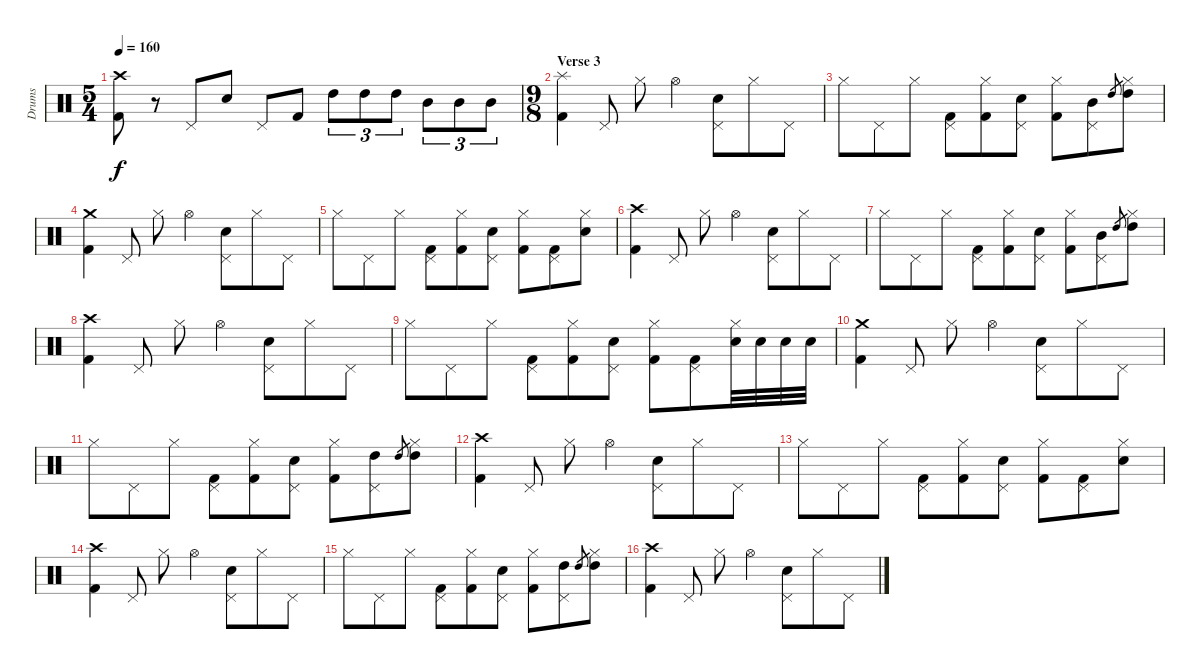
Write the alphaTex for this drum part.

\track ("Drums" "Drums") {instrument percussion}
\staff {score}
\articulation defaults
\ts (5 4)
\tempo 160
\clef neutral
\ks c
("Crash high (hit)" "Kick (hit) 2").8{dy f} r.8 "Pedal Hi-Hat (hit)".8 "Electric Snare (hit)".8 "Pedal Hi-Hat (hit)".8 "Kick (hit) 2".8 "High Tom (hit)".8{tu (3 2)} "High Tom (hit)".8{tu (3 2)} "High Tom (hit)".8{tu (3 2)} "Mid Tom (hit)".8{tu (3 2)} "Mid Tom (hit)".8{tu (3 2)} "Mid Tom (hit)".8{tu (3 2)} |
\ts (9 8)
\section ("" "Verse 3")
("Splash (hit)" "Kick (hit) 2").4 "Pedal Hi-Hat (hit)".8 "Hi-Hat (closed)".8 "Hi-Hat (open)".4 ("Pedal Hi-Hat (hit)" "Electric Snare (hit)").8 "Hi-Hat (closed)".8 "Pedal Hi-Hat (hit)".8 |
"Hi-Hat (closed)".8 "Pedal Hi-Hat (hit)".8 "Hi-Hat (closed)".8 ("Pedal Hi-Hat (hit)" "Kick (hit) 2").8 ("Hi-Hat (closed)" "Kick (hit) 2").8 ("Pedal Hi-Hat (hit)" "Electric Snare (hit)").8 ("Hi-Hat (closed)" "Kick (hit) 2").8 ("Pedal Hi-Hat (hit)" "Mid Tom (hit)").8 "High Tom (hit)".8{gr} ("Hi-Hat (closed)" "High Tom (hit)").8 |
("Crash medium (hit)" "Kick (hit) 2").4 "Pedal Hi-Hat (hit)".8 "Hi-Hat (closed)".8 "Hi-Hat (open)".4 ("Pedal Hi-Hat (hit)" "Electric Snare (hit)").8 "Hi-Hat (closed)".8 "Pedal Hi-Hat (hit)".8 |
"Hi-Hat (closed)".8 "Pedal Hi-Hat (hit)".8 "Hi-Hat (closed)".8 ("Pedal Hi-Hat (hit)" "Kick (hit) 2").8 ("Hi-Hat (closed)" "Kick (hit) 2").8 ("Pedal Hi-Hat (hit)" "Electric Snare (hit)").8 ("Hi-Hat (closed)" "Kick (hit) 2").8 ("Pedal Hi-Hat (hit)" "Kick (hit) 2").8 ("Hi-Hat (closed)" "Electric Snare (hit)").8 |
("Crash high (hit)" "Kick (hit) 2").4 "Pedal Hi-Hat (hit)".8 "Hi-Hat (closed)".8 "Hi-Hat (open)".4 ("Pedal Hi-Hat (hit)" "Electric Snare (hit)").8 "Hi-Hat (closed)".8 "Pedal Hi-Hat (hit)".8 |
"Hi-Hat (closed)".8 "Pedal Hi-Hat (hit)".8 "Hi-Hat (closed)".8 ("Pedal Hi-Hat (hit)" "Kick (hit) 2").8 ("Hi-Hat (closed)" "Kick (hit) 2").8 ("Pedal Hi-Hat (hit)" "Electric Snare (hit)").8 ("Hi-Hat (closed)" "Kick (hit) 2").8 ("Pedal Hi-Hat (hit)" "Mid Tom (hit)").8 "High Tom (hit)".8{gr} ("Hi-Hat (closed)" "High Tom (hit)").8 |
("Crash high (hit)" "Kick (hit) 2").4 "Pedal Hi-Hat (hit)".8 "Hi-Hat (closed)".8 "Hi-Hat (open)".4 ("Pedal Hi-Hat (hit)" "Electric Snare (hit)").8 "Hi-Hat (closed)".8 "Pedal Hi-Hat (hit)".8 |
"Hi-Hat (closed)".8 "Pedal Hi-Hat (hit)".8 "Hi-Hat (closed)".8 ("Pedal Hi-Hat (hit)" "Kick (hit) 2").8 ("Hi-Hat (closed)" "Kick (hit) 2").8 ("Pedal Hi-Hat (hit)" "Electric Snare (hit)").8 ("Hi-Hat (closed)" "Kick (hit) 2").8 ("Pedal Hi-Hat (hit)" "Kick (hit) 2").8 ("Hi-Hat (closed)" "Electric Snare (hit)").32 "Electric Snare (hit)".32 "Electric Snare (hit)".32 "Electric Snare (hit)".32 |
("Crash medium (hit)" "Kick (hit) 2").4 "Pedal Hi-Hat (hit)".8 "Hi-Hat (closed)".8 "Hi-Hat (open)".4 ("Pedal Hi-Hat (hit)" "Electric Snare (hit)").8 "Hi-Hat (closed)".8 "Pedal Hi-Hat (hit)".8 |
"Hi-Hat (closed)".8 "Pedal Hi-Hat (hit)".8 "Hi-Hat (closed)".8 ("Pedal Hi-Hat (hit)" "Kick (hit) 2").8 ("Hi-Hat (closed)" "Kick (hit) 2").8 ("Pedal Hi-Hat (hit)" "Electric Snare (hit)").8 ("Hi-Hat (closed)" "Kick (hit) 2").8 ("Pedal Hi-Hat (hit)" "High Tom (hit)").8 "High Tom (hit)".8{gr} ("Hi-Hat (closed)" "High Tom (hit)").8 |
("Crash high (hit)" "Kick (hit) 2").4 "Pedal Hi-Hat (hit)".8 "Hi-Hat (closed)".8 "Hi-Hat (open)".4 ("Pedal Hi-Hat (hit)" "Electric Snare (hit)").8 "Hi-Hat (closed)".8 "Pedal Hi-Hat (hit)".8 |
"Hi-Hat (closed)".8 "Pedal Hi-Hat (hit)".8 "Hi-Hat (closed)".8 ("Pedal Hi-Hat (hit)" "Kick (hit) 2").8 ("Hi-Hat (closed)" "Kick (hit) 2").8 ("Pedal Hi-Hat (hit)" "Electric Snare (hit)").8 ("Hi-Hat (closed)" "Kick (hit) 2").8 ("Pedal Hi-Hat (hit)" "Kick (hit) 2").8 ("Hi-Hat (closed)" "Electric Snare (hit)").8 |
("Crash high (hit)" "Kick (hit) 2").4 "Pedal Hi-Hat (hit)".8 "Hi-Hat (closed)".8 "Hi-Hat (open)".4 ("Pedal Hi-Hat (hit)" "Electric Snare (hit)").8 "Hi-Hat (closed)".8 "Pedal Hi-Hat (hit)".8 |
"Hi-Hat (closed)".8 "Pedal Hi-Hat (hit)".8 "Hi-Hat (closed)".8 ("Pedal Hi-Hat (hit)" "Kick (hit) 2").8 ("Hi-Hat (closed)" "Kick (hit) 2").8 ("Pedal Hi-Hat (hit)" "Electric Snare (hit)").8 ("Hi-Hat (closed)" "Kick (hit) 2").8 ("Pedal Hi-Hat (hit)" "High Tom (hit)").8 "High Tom (hit)".8{gr} ("Hi-Hat (closed)" "High Tom (hit)").8 |
("Crash high (hit)" "Kick (hit) 2").4 "Pedal Hi-Hat (hit)".8 "Hi-Hat (closed)".8 "Hi-Hat (open)".4 ("Pedal Hi-Hat (hit)" "Electric Snare (hit)").8 "Hi-Hat (closed)".8 "Pedal Hi-Hat (hit)".8
